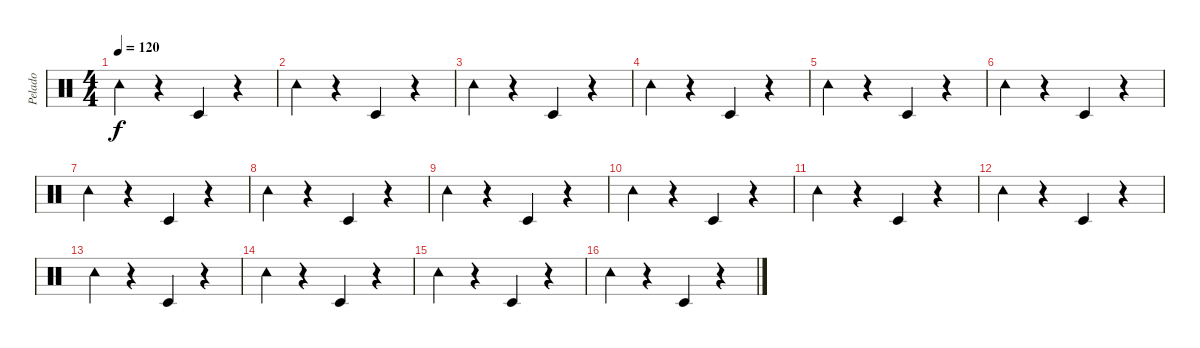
\track ("Pelado" "Pelado") {instrument percussion}
\staff {score}
\articulation defaults
\ts (4 4)
\tempo 120
\clef neutral
\ks c "Tambourine (hit)".4{dy f}
r.4 "Timbale low (hit)".4 r.4 |
"Tambourine (hit)".4 r.4 "Timbale low (hit)".4 r.4 |
"Tambourine (hit)".4 r.4 "Timbale low (hit)".4 r.4 |
"Tambourine (hit)".4 r.4 "Timbale low (hit)".4 r.4 |
"Tambourine (hit)".4 r.4 "Timbale low (hit)".4 r.4 |
"Tambourine (hit)".4 r.4 "Timbale low (hit)".4 r.4 |
"Tambourine (hit)".4 r.4 "Timbale low (hit)".4 r.4 |
"Tambourine (hit)".4 r.4 "Timbale low (hit)".4 r.4 |
"Tambourine (hit)".4 r.4 "Timbale low (hit)".4 r.4 |
"Tambourine (hit)".4 r.4 "Timbale low (hit)".4 r.4 |
"Tambourine (hit)".4 r.4 "Timbale low (hit)".4 r.4 |
"Tambourine (hit)".4 r.4 "Timbale low (hit)".4 r.4 |
"Tambourine (hit)".4 r.4 "Timbale low (hit)".4 r.4 |
"Tambourine (hit)".4 r.4 "Timbale low (hit)".4 r.4 |
"Tambourine (hit)".4 r.4 "Timbale low (hit)".4 r.4 |
"Tambourine (hit)".4 r.4 "Timbale low (hit)".4 r.4
